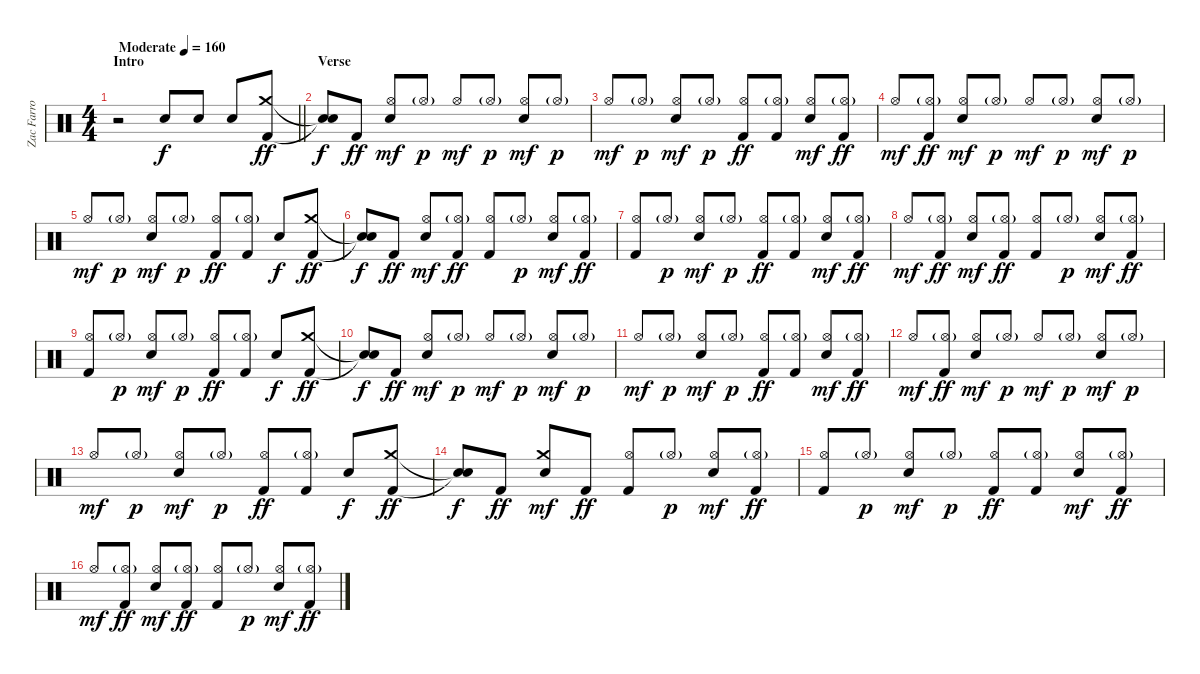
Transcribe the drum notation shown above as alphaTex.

\track ("Zac Farro" "Zac Farro") {instrument percussion}
\staff {score}
\articulation defaults
\ts (4 4)
\section ("" "Intro")
\tempo (160 "Moderate")
\clef neutral
\barLineRight lightlight
\ks c
r.2{dy f} "Snare (hit) 2".8{beam Up} "Snare (hit) 2".8{beam Up} "Snare (hit) 2".8{beam Up} ("Crash medium (hit)" "Kick (hit) 2").8{dy ff beam Up} |
\section ("" "Verse")
("Snare (hit)"{t} "Snare (hit)"{t}).8{dy f} "Kick (hit) 2".8{dy ff} ("Hi-Hat (open)" "Snare (hit) 2").8{dy mf beam Up} "Hi-Hat (open)"{g}.8{dy p beam Up} "Hi-Hat (open)".8{dy mf beam Up} "Hi-Hat (open)"{g}.8{dy p beam Up} ("Hi-Hat (open)" "Snare (hit) 2").8{dy mf beam Up} "Hi-Hat (open)"{g}.8{dy p beam Up} |
"Hi-Hat (open)".8{dy mf beam Up} "Hi-Hat (open)"{g}.8{dy p beam Up} ("Hi-Hat (open)" "Snare (hit) 2").8{dy mf beam Up} "Hi-Hat (open)"{g}.8{dy p beam Up} ("Hi-Hat (open)" "Kick (hit) 2").8{dy ff beam Up} ("Hi-Hat (open)"{g} "Kick (hit) 2").8{beam Up} ("Hi-Hat (open)" "Snare (hit) 2").8{dy mf beam Up} ("Hi-Hat (open)"{g} "Kick (hit) 2").8{dy ff beam Up} |
"Hi-Hat (open)".8{dy mf beam Up} ("Hi-Hat (open)"{g} "Kick (hit) 2").8{dy ff beam Up} ("Hi-Hat (open)" "Snare (hit) 2").8{dy mf beam Up} "Hi-Hat (open)"{g}.8{dy p beam Up} "Hi-Hat (open)".8{dy mf beam Up} "Hi-Hat (open)"{g}.8{dy p beam Up} ("Hi-Hat (open)" "Snare (hit) 2").8{dy mf beam Up} "Hi-Hat (open)"{g}.8{dy p beam Up} |
"Hi-Hat (open)".8{dy mf beam Up} "Hi-Hat (open)"{g}.8{dy p beam Up} ("Hi-Hat (open)" "Snare (hit) 2").8{dy mf beam Up} "Hi-Hat (open)"{g}.8{dy p beam Up} ("Hi-Hat (open)" "Kick (hit) 2").8{dy ff beam Up} ("Hi-Hat (open)"{g} "Kick (hit) 2").8{beam Up} "Snare (hit) 2".8{dy f beam Up} ("Crash medium (hit)" "Kick (hit) 2").8{dy ff beam Up} |
("Snare (hit)"{t} "Snare (hit)"{t}).8{dy f beam Up} "Kick (hit) 2".8{dy ff} ("Hi-Hat (open)" "Snare (hit) 2").8{dy mf beam Up} ("Hi-Hat (open)"{g} "Kick (hit) 2").8{dy ff beam Up} ("Hi-Hat (open)" "Kick (hit) 2").8{beam Up} "Hi-Hat (open)"{g}.8{dy p beam Up} ("Hi-Hat (open)" "Snare (hit) 2").8{dy mf beam Up} ("Hi-Hat (open)"{g} "Kick (hit) 2").8{dy ff beam Up} |
("Hi-Hat (open)" "Kick (hit) 2").8{beam Up} "Hi-Hat (open)"{g}.8{dy p beam Up} ("Hi-Hat (open)" "Snare (hit) 2").8{dy mf beam Up} "Hi-Hat (open)"{g}.8{dy p beam Up} ("Hi-Hat (open)" "Kick (hit) 2").8{dy ff beam Up} ("Hi-Hat (open)"{g} "Kick (hit) 2").8{beam Up} ("Hi-Hat (open)" "Snare (hit) 2").8{dy mf beam Up} ("Hi-Hat (open)"{g} "Kick (hit) 2").8{dy ff beam Up} |
"Hi-Hat (open)".8{dy mf beam Up} ("Hi-Hat (open)"{g} "Kick (hit) 2").8{dy ff beam Up} ("Hi-Hat (open)" "Snare (hit) 2").8{dy mf beam Up} ("Hi-Hat (open)"{g} "Kick (hit) 2").8{dy ff beam Up} ("Hi-Hat (open)" "Kick (hit) 2").8{beam Up} "Hi-Hat (open)"{g}.8{dy p beam Up} ("Hi-Hat (open)" "Snare (hit) 2").8{dy mf beam Up} ("Hi-Hat (open)"{g} "Kick (hit) 2").8{dy ff beam Up} |
("Hi-Hat (open)" "Kick (hit) 2").8{beam Up} "Hi-Hat (open)"{g}.8{dy p beam Up} ("Hi-Hat (open)" "Snare (hit) 2").8{dy mf beam Up} "Hi-Hat (open)"{g}.8{dy p beam Up} ("Hi-Hat (open)" "Kick (hit) 2").8{dy ff beam Up} ("Hi-Hat (open)"{g} "Kick (hit) 2").8{beam Up} "Snare (hit) 2".8{dy f beam Up} ("Crash medium (hit)" "Kick (hit) 2").8{dy ff beam Up} |
("Snare (hit)"{t} "Snare (hit)"{t}).8{dy f} "Kick (hit) 2".8{dy ff} ("Hi-Hat (open)" "Snare (hit) 2").8{dy mf beam Up} "Hi-Hat (open)"{g}.8{dy p beam Up} "Hi-Hat (open)".8{dy mf beam Up} "Hi-Hat (open)"{g}.8{dy p beam Up} ("Hi-Hat (open)" "Snare (hit) 2").8{dy mf beam Up} "Hi-Hat (open)"{g}.8{dy p beam Up} |
"Hi-Hat (open)".8{dy mf beam Up} "Hi-Hat (open)"{g}.8{dy p beam Up} ("Hi-Hat (open)" "Snare (hit) 2").8{dy mf beam Up} "Hi-Hat (open)"{g}.8{dy p beam Up} ("Hi-Hat (open)" "Kick (hit) 2").8{dy ff beam Up} ("Hi-Hat (open)"{g} "Kick (hit) 2").8{beam Up} ("Hi-Hat (open)" "Snare (hit) 2").8{dy mf beam Up} ("Hi-Hat (open)"{g} "Kick (hit) 2").8{dy ff beam Up} |
"Hi-Hat (open)".8{dy mf beam Up} ("Hi-Hat (open)"{g} "Kick (hit) 2").8{dy ff beam Up} ("Hi-Hat (open)" "Snare (hit) 2").8{dy mf beam Up} "Hi-Hat (open)"{g}.8{dy p beam Up} "Hi-Hat (open)".8{dy mf beam Up} "Hi-Hat (open)"{g}.8{dy p beam Up} ("Hi-Hat (open)" "Snare (hit) 2").8{dy mf beam Up} "Hi-Hat (open)"{g}.8{dy p beam Up} |
"Hi-Hat (open)".8{dy mf beam Up} "Hi-Hat (open)"{g}.8{dy p beam Up} ("Hi-Hat (open)" "Snare (hit) 2").8{dy mf beam Up} "Hi-Hat (open)"{g}.8{dy p beam Up} ("Hi-Hat (open)" "Kick (hit) 2").8{dy ff beam Up} ("Hi-Hat (open)"{g} "Kick (hit) 2").8{beam Up} "Snare (hit) 2".8{dy f beam Up} ("Crash medium (hit)" "Kick (hit) 2").8{dy ff beam Up} |
("Snare (hit)"{t} "Snare (hit)"{t}).8{dy f beam Up} "Kick (hit) 2".8{dy ff} ("Crash medium (hit)" "Snare (hit) 2").8{dy mf beam Up} "Kick (hit) 2".8{dy ff beam Up} ("Hi-Hat (open)" "Kick (hit) 2").8{beam Up} "Hi-Hat (open)"{g}.8{dy p beam Up} ("Hi-Hat (open)" "Snare (hit) 2").8{dy mf beam Up} ("Hi-Hat (open)"{g} "Kick (hit) 2").8{dy ff beam Up} |
("Hi-Hat (open)" "Kick (hit) 2").8{beam Up} "Hi-Hat (open)"{g}.8{dy p beam Up} ("Hi-Hat (open)" "Snare (hit) 2").8{dy mf beam Up} "Hi-Hat (open)"{g}.8{dy p beam Up} ("Hi-Hat (open)" "Kick (hit) 2").8{dy ff beam Up} ("Hi-Hat (open)"{g} "Kick (hit) 2").8{beam Up} ("Hi-Hat (open)" "Snare (hit) 2").8{dy mf beam Up} ("Hi-Hat (open)"{g} "Kick (hit) 2").8{dy ff beam Up} |
"Hi-Hat (open)".8{dy mf beam Up} ("Hi-Hat (open)"{g} "Kick (hit) 2").8{dy ff beam Up} ("Hi-Hat (open)" "Snare (hit) 2").8{dy mf beam Up} ("Hi-Hat (open)"{g} "Kick (hit) 2").8{dy ff beam Up} ("Hi-Hat (open)" "Kick (hit) 2").8{beam Up} "Hi-Hat (open)"{g}.8{dy p beam Up} ("Hi-Hat (open)" "Snare (hit) 2").8{dy mf beam Up} ("Hi-Hat (open)"{g} "Kick (hit) 2").8{dy ff beam Up}
